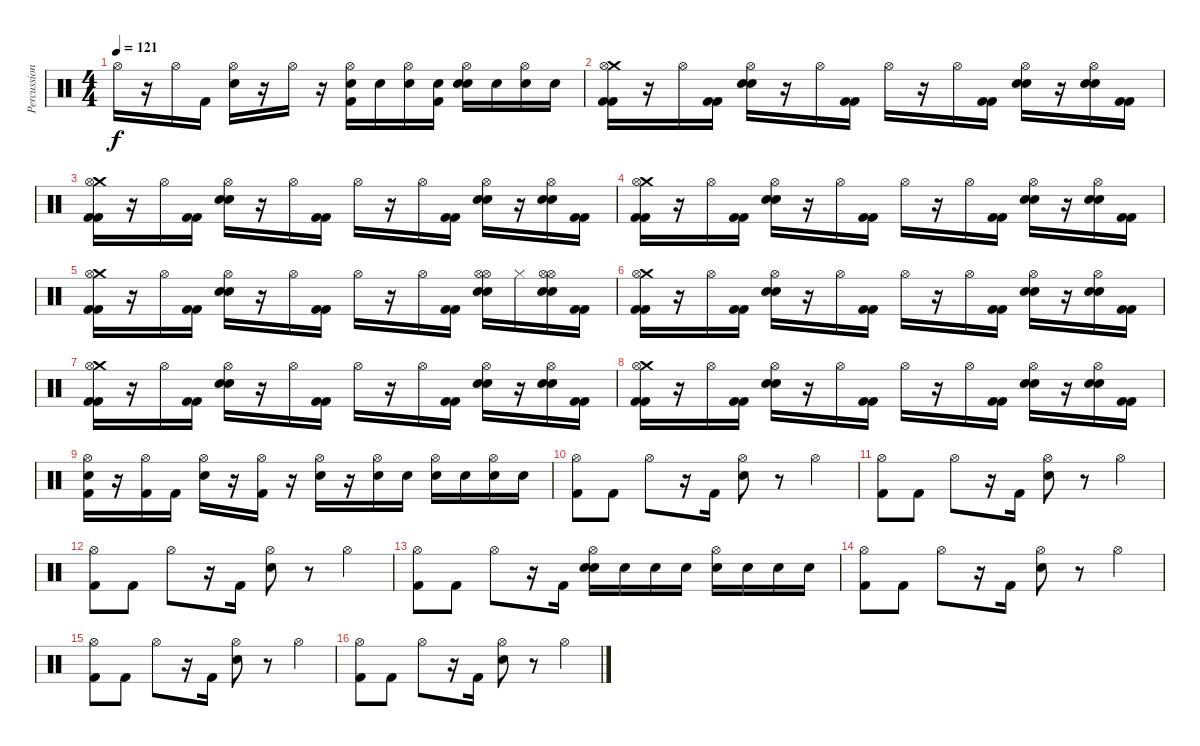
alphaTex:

\track ("Percussion- Mike" "Percussion") {instrument percussion}
\staff {score}
\articulation defaults
\ts (4 4)
\tempo 121
\clef neutral
\ks c "Hi-Hat (open)".16{dy f}
r.16 "Hi-Hat (open)".16 "Kick (hit) 2".16 ("Electric Snare (hit)" "Hi-Hat (open)").16 r.16 "Hi-Hat (open)".16 r.16 ("Electric Snare (hit)" "Kick (hit) 2" "Hi-Hat (open)").16 "Electric Snare (hit)".16 ("Electric Snare (hit)" "Hi-Hat (open)").16 ("Electric Snare (hit)" "Kick (hit) 2").16 ("Electric Snare (hit)" "Electric Snare (hit)" "Hi-Hat (open)").16 "Electric Snare (hit)".16 ("Electric Snare (hit)" "Hi-Hat (open)").16 "Electric Snare (hit)".16 |
("Crash medium (hit)" "Kick (hit) 2" "Kick (hit) 2" "Hi-Hat (open)").16 r.16 "Hi-Hat (open)".16 ("Kick (hit) 2" "Kick (hit) 2").16 ("Snare (hit) 2" "Snare (hit) 2" "Hi-Hat (open)").16 r.16 "Hi-Hat (open)".16 ("Kick (hit) 2" "Kick (hit) 2").16 "Hi-Hat (open)".16 r.16 "Hi-Hat (open)".16 ("Kick (hit) 2" "Kick (hit) 2").16 ("Snare (hit) 2" "Snare (hit) 2" "Hi-Hat (open)").16 r.16 ("Electric Snare (hit)" "Electric Snare (hit)" "Hi-Hat (open)").16 ("Kick (hit) 2" "Kick (hit) 2").16 |
("Crash medium (hit)" "Kick (hit) 2" "Kick (hit) 2" "Hi-Hat (open)").16 r.16 "Hi-Hat (open)".16 ("Kick (hit) 2" "Kick (hit) 2").16 ("Snare (hit) 2" "Snare (hit) 2" "Hi-Hat (open)").16 r.16 "Hi-Hat (open)".16 ("Kick (hit) 2" "Kick (hit) 2").16 "Hi-Hat (open)".16 r.16 "Hi-Hat (open)".16 ("Kick (hit) 2" "Kick (hit) 2").16 ("Snare (hit) 2" "Snare (hit) 2" "Hi-Hat (open)").16 r.16 ("Electric Snare (hit)" "Electric Snare (hit)" "Hi-Hat (open)").16 ("Kick (hit) 2" "Kick (hit) 2").16 |
("Crash medium (hit)" "Kick (hit) 2" "Kick (hit) 2" "Hi-Hat (open)").16 r.16 "Hi-Hat (open)".16 ("Kick (hit) 2" "Kick (hit) 2").16 ("Snare (hit) 2" "Snare (hit) 2" "Hi-Hat (open)").16 r.16 "Hi-Hat (open)".16 ("Kick (hit) 2" "Kick (hit) 2").16 "Hi-Hat (open)".16 r.16 "Hi-Hat (open)".16 ("Kick (hit) 2" "Kick (hit) 2").16 ("Snare (hit) 2" "Snare (hit) 2" "Hi-Hat (open)").16 r.16 ("Electric Snare (hit)" "Electric Snare (hit)" "Hi-Hat (open)").16 ("Kick (hit) 2" "Kick (hit) 2").16 |
("Crash medium (hit)" "Kick (hit) 2" "Kick (hit) 2" "Hi-Hat (open)").16 r.16 "Hi-Hat (open)".16 ("Kick (hit) 2" "Kick (hit) 2").16 ("Snare (hit) 2" "Snare (hit) 2" "Hi-Hat (open)").16 r.16 "Hi-Hat (open)".16 ("Kick (hit) 2" "Kick (hit) 2").16 "Hi-Hat (open)".16 r.16 "Hi-Hat (open)".16 ("Kick (hit) 2" "Kick (hit) 2").16 ("Hi-Hat (open)" "Snare (hit) 2" "Snare (hit) 2" "Hi-Hat (open)").16 "Hi-Hat (closed)".16 ("Hi-Hat (open)" "Electric Snare (hit)" "Electric Snare (hit)" "Hi-Hat (open)").16 ("Kick (hit) 2" "Kick (hit) 2").16 |
("Crash medium (hit)" "Kick (hit) 2" "Kick (hit) 2" "Hi-Hat (open)").16 r.16 "Hi-Hat (open)".16 ("Kick (hit) 2" "Kick (hit) 2").16 ("Snare (hit) 2" "Snare (hit) 2" "Hi-Hat (open)").16 r.16 "Hi-Hat (open)".16 ("Kick (hit) 2" "Kick (hit) 2").16 "Hi-Hat (open)".16 r.16 "Hi-Hat (open)".16 ("Kick (hit) 2" "Kick (hit) 2").16 ("Snare (hit) 2" "Snare (hit) 2" "Hi-Hat (open)").16 r.16 ("Electric Snare (hit)" "Electric Snare (hit)" "Hi-Hat (open)").16 ("Kick (hit) 2" "Kick (hit) 2").16 |
("Crash medium (hit)" "Kick (hit) 2" "Kick (hit) 2" "Hi-Hat (open)").16 r.16 "Hi-Hat (open)".16 ("Kick (hit) 2" "Kick (hit) 2").16 ("Snare (hit) 2" "Snare (hit) 2" "Hi-Hat (open)").16 r.16 "Hi-Hat (open)".16 ("Kick (hit) 2" "Kick (hit) 2").16 "Hi-Hat (open)".16 r.16 "Hi-Hat (open)".16 ("Kick (hit) 2" "Kick (hit) 2").16 ("Snare (hit) 2" "Snare (hit) 2" "Hi-Hat (open)").16 r.16 ("Electric Snare (hit)" "Electric Snare (hit)" "Hi-Hat (open)").16 ("Kick (hit) 2" "Kick (hit) 2").16 |
("Crash medium (hit)" "Kick (hit) 2" "Kick (hit) 2" "Hi-Hat (open)").16 r.16 "Hi-Hat (open)".16 ("Kick (hit) 2" "Kick (hit) 2").16 ("Snare (hit) 2" "Snare (hit) 2" "Hi-Hat (open)").16 r.16 "Hi-Hat (open)".16 ("Kick (hit) 2" "Kick (hit) 2").16 "Hi-Hat (open)".16 r.16 "Hi-Hat (open)".16 ("Kick (hit) 2" "Kick (hit) 2").16 ("Snare (hit) 2" "Snare (hit) 2" "Hi-Hat (open)").16 r.16 ("Electric Snare (hit)" "Electric Snare (hit)" "Hi-Hat (open)").16 ("Kick (hit) 2" "Kick (hit) 2").16 |
("Snare (hit) 2" "Kick (hit) 2" "Hi-Hat (open)").16 r.16 ("Kick (hit) 2" "Hi-Hat (open)").16 "Kick (hit) 2".16 ("Snare (hit) 2" "Hi-Hat (open)").16 r.16 ("Kick (hit) 2" "Hi-Hat (open)").16 r.16 ("Snare (hit) 2" "Hi-Hat (open)").16 r.16 ("Electric Snare (hit)" "Hi-Hat (open)").16 "Electric Snare (hit)".16 ("Electric Snare (hit)" "Hi-Hat (open)").16 "Electric Snare (hit)".16 ("Electric Snare (hit)" "Hi-Hat (open)").16 "Electric Snare (hit)".16 |
("Hi-Hat (open)" "Kick (hit) 2").8 "Kick (hit) 2".8 "Hi-Hat (open)".8 r.16 "Kick (hit) 2".16 ("Hi-Hat (open)" "Electric Snare (hit)").8 r.8 "Hi-Hat (open)".4 |
("Hi-Hat (open)" "Kick (hit) 2").8 "Kick (hit) 2".8 "Hi-Hat (open)".8 r.16 "Kick (hit) 2".16 ("Hi-Hat (open)" "Electric Snare (hit)").8 r.8 "Hi-Hat (open)".4 |
("Hi-Hat (open)" "Kick (hit) 2").8 "Kick (hit) 2".8 "Hi-Hat (open)".8 r.16 "Kick (hit) 2".16 ("Hi-Hat (open)" "Electric Snare (hit)").8 r.8 "Hi-Hat (open)".4 |
("Hi-Hat (open)" "Kick (hit) 2").8 "Kick (hit) 2".8 "Hi-Hat (open)".8 r.16 "Kick (hit) 2".16 ("Electric Snare (hit)" "Hi-Hat (open)" "Electric Snare (hit)").16 "Snare (hit) 2".16 "Snare (hit) 2".16 "Snare (hit) 2".16 ("Electric Snare (hit)" "Hi-Hat (open)").16 "Snare (hit) 2".16 "Snare (hit) 2".16 "Snare (hit) 2".16 |
("Hi-Hat (open)" "Kick (hit) 2").8 "Kick (hit) 2".8 "Hi-Hat (open)".8 r.16 "Kick (hit) 2".16 ("Hi-Hat (open)" "Electric Snare (hit)").8 r.8 "Hi-Hat (open)".4 |
("Hi-Hat (open)" "Kick (hit) 2").8 "Kick (hit) 2".8 "Hi-Hat (open)".8 r.16 "Kick (hit) 2".16 ("Hi-Hat (open)" "Electric Snare (hit)").8 r.8 "Hi-Hat (open)".4 |
("Hi-Hat (open)" "Kick (hit) 2").8 "Kick (hit) 2".8 "Hi-Hat (open)".8 r.16 "Kick (hit) 2".16 ("Hi-Hat (open)" "Electric Snare (hit)").8 r.8 "Hi-Hat (open)".4
